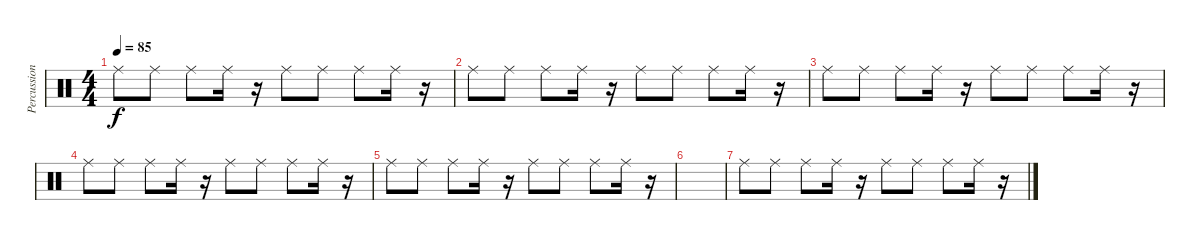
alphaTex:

\track ("Percussion" "Percussion") {instrument percussion}
\staff {score}
\articulation defaults
\ts (4 4)
\tempo 85
\clef neutral
\ks c "Ride (middle)".8{dy f} "Ride (middle)".8 "Ride (middle)".8 "Ride (middle)".16
r.16 "Ride (middle)".8 "Ride (middle)".8 "Ride (middle)".8 "Ride (middle)".16 r.16 |
"Ride (middle)".8 "Ride (middle)".8 "Ride (middle)".8 "Ride (middle)".16 r.16 "Ride (middle)".8 "Ride (middle)".8 "Ride (middle)".8 "Ride (middle)".16 r.16 |
"Ride (middle)".8 "Ride (middle)".8 "Ride (middle)".8 "Ride (middle)".16 r.16 "Ride (middle)".8 "Ride (middle)".8 "Ride (middle)".8 "Ride (middle)".16 r.16 |
"Ride (middle)".8 "Ride (middle)".8 "Ride (middle)".8 "Ride (middle)".16 r.16 "Ride (middle)".8 "Ride (middle)".8 "Ride (middle)".8 "Ride (middle)".16 r.16 |
"Ride (middle)".8 "Ride (middle)".8 "Ride (middle)".8 "Ride (middle)".16 r.16 "Ride (middle)".8 "Ride (middle)".8 "Ride (middle)".8 "Ride (middle)".16 r.16 |
|
"Ride (middle)".8 "Ride (middle)".8 "Ride (middle)".8 "Ride (middle)".16 r.16 "Ride (middle)".8 "Ride (middle)".8 "Ride (middle)".8 "Ride (middle)".16 r.16
